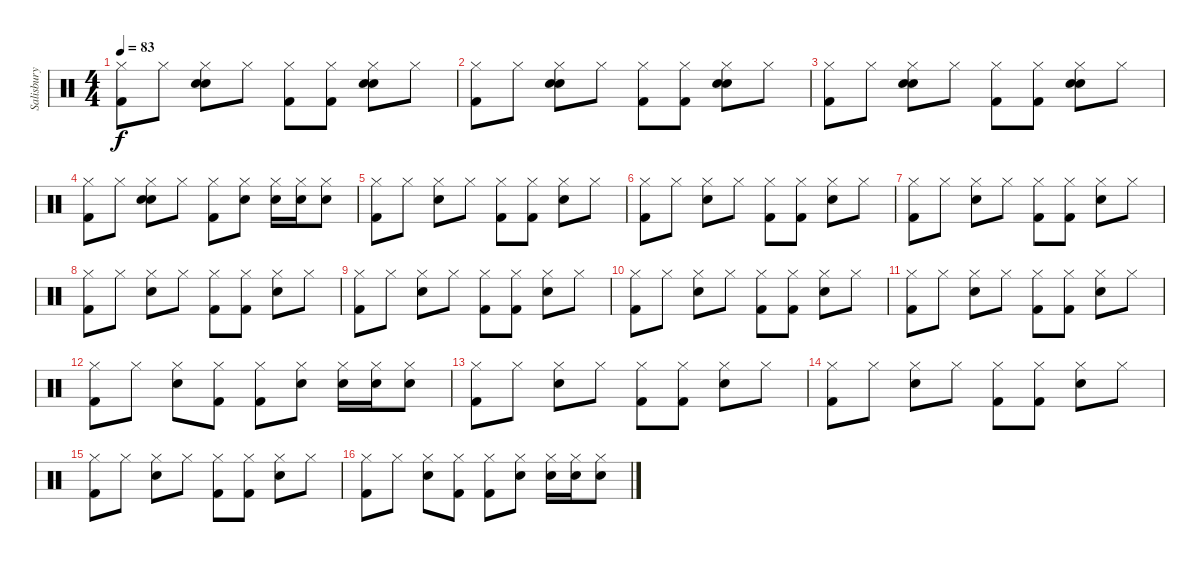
\track ("Salisbury" "Salisbury") {instrument percussion}
\staff {score}
\articulation defaults
\ts (4 4)
\tempo 83
\clef neutral
\ks c
("Hi-Hat (closed)" "Kick (hit) 2").8{dy f} "Hi-Hat (closed)".8 ("Hi-Hat (closed)" "Electric Snare (hit)" "Hand Clap (hit)").8 "Hi-Hat (closed)".8 ("Hi-Hat (closed)" "Kick (hit) 2").8 ("Hi-Hat (closed)" "Kick (hit) 2").8 ("Hi-Hat (closed)" "Electric Snare (hit)" "Hand Clap (hit)").8 "Hi-Hat (closed)".8 |
("Hi-Hat (closed)" "Kick (hit) 2").8 "Hi-Hat (closed)".8 ("Hi-Hat (closed)" "Electric Snare (hit)" "Hand Clap (hit)").8 "Hi-Hat (closed)".8 ("Hi-Hat (closed)" "Kick (hit) 2").8 ("Hi-Hat (closed)" "Kick (hit) 2").8 ("Hi-Hat (closed)" "Electric Snare (hit)" "Hand Clap (hit)").8 "Hi-Hat (closed)".8 |
("Hi-Hat (closed)" "Kick (hit) 2").8 "Hi-Hat (closed)".8 ("Hi-Hat (closed)" "Electric Snare (hit)" "Hand Clap (hit)").8 "Hi-Hat (closed)".8 ("Hi-Hat (closed)" "Kick (hit) 2").8 ("Hi-Hat (closed)" "Kick (hit) 2").8 ("Hi-Hat (closed)" "Electric Snare (hit)" "Hand Clap (hit)").8 "Hi-Hat (closed)".8 |
("Hi-Hat (closed)" "Kick (hit) 2").8 "Hi-Hat (closed)".8 ("Hi-Hat (closed)" "Electric Snare (hit)" "Hand Clap (hit)").8 "Hi-Hat (closed)".8 ("Hi-Hat (closed)" "Kick (hit) 2").8 ("Hi-Hat (closed)" "Electric Snare (hit)").8 ("Hi-Hat (closed)" "Electric Snare (hit)").16 ("Hi-Hat (closed)" "Electric Snare (hit)").16 ("Hi-Hat (closed)" "Electric Snare (hit)").8 |
("Hi-Hat (closed)" "Kick (hit) 2").8 "Hi-Hat (closed)".8 ("Hi-Hat (closed)" "Electric Snare (hit)").8 "Hi-Hat (closed)".8 ("Hi-Hat (closed)" "Kick (hit) 2").8 ("Hi-Hat (closed)" "Kick (hit) 2").8 ("Hi-Hat (closed)" "Electric Snare (hit)").8 "Hi-Hat (closed)".8 |
("Hi-Hat (closed)" "Kick (hit) 2").8 "Hi-Hat (closed)".8 ("Hi-Hat (closed)" "Electric Snare (hit)").8 "Hi-Hat (closed)".8 ("Hi-Hat (closed)" "Kick (hit) 2").8 ("Hi-Hat (closed)" "Kick (hit) 2").8 ("Hi-Hat (closed)" "Electric Snare (hit)").8 "Hi-Hat (closed)".8 |
("Hi-Hat (closed)" "Kick (hit) 2").8 "Hi-Hat (closed)".8 ("Hi-Hat (closed)" "Electric Snare (hit)").8 "Hi-Hat (closed)".8 ("Hi-Hat (closed)" "Kick (hit) 2").8 ("Hi-Hat (closed)" "Kick (hit) 2").8 ("Hi-Hat (closed)" "Electric Snare (hit)").8 "Hi-Hat (closed)".8 |
("Hi-Hat (closed)" "Kick (hit) 2").8 "Hi-Hat (closed)".8 ("Hi-Hat (closed)" "Electric Snare (hit)").8 "Hi-Hat (closed)".8 ("Hi-Hat (closed)" "Kick (hit) 2").8 ("Hi-Hat (closed)" "Kick (hit) 2").8 ("Hi-Hat (closed)" "Electric Snare (hit)").8 "Hi-Hat (closed)".8 |
("Hi-Hat (closed)" "Kick (hit) 2").8 "Hi-Hat (closed)".8 ("Hi-Hat (closed)" "Electric Snare (hit)").8 "Hi-Hat (closed)".8 ("Hi-Hat (closed)" "Kick (hit) 2").8 ("Hi-Hat (closed)" "Kick (hit) 2").8 ("Hi-Hat (closed)" "Electric Snare (hit)").8 "Hi-Hat (closed)".8 |
("Hi-Hat (closed)" "Kick (hit) 2").8 "Hi-Hat (closed)".8 ("Hi-Hat (closed)" "Electric Snare (hit)").8 "Hi-Hat (closed)".8 ("Hi-Hat (closed)" "Kick (hit) 2").8 ("Hi-Hat (closed)" "Kick (hit) 2").8 ("Hi-Hat (closed)" "Electric Snare (hit)").8 "Hi-Hat (closed)".8 |
("Hi-Hat (closed)" "Kick (hit) 2").8 "Hi-Hat (closed)".8 ("Hi-Hat (closed)" "Electric Snare (hit)").8 "Hi-Hat (closed)".8 ("Hi-Hat (closed)" "Kick (hit) 2").8 ("Hi-Hat (closed)" "Kick (hit) 2").8 ("Hi-Hat (closed)" "Electric Snare (hit)").8 "Hi-Hat (closed)".8 |
("Hi-Hat (closed)" "Kick (hit) 2").8 "Hi-Hat (closed)".8 ("Hi-Hat (closed)" "Electric Snare (hit)").8 ("Hi-Hat (closed)" "Kick (hit) 2").8 ("Hi-Hat (closed)" "Kick (hit) 2").8 ("Hi-Hat (closed)" "Electric Snare (hit)").8 ("Hi-Hat (closed)" "Electric Snare (hit)").16 ("Hi-Hat (closed)" "Electric Snare (hit)").16 ("Hi-Hat (closed)" "Electric Snare (hit)").8 |
("Hi-Hat (closed)" "Kick (hit) 2").8 "Hi-Hat (closed)".8 ("Hi-Hat (closed)" "Electric Snare (hit)").8 "Hi-Hat (closed)".8 ("Hi-Hat (closed)" "Kick (hit) 2").8 ("Hi-Hat (closed)" "Kick (hit) 2").8 ("Hi-Hat (closed)" "Electric Snare (hit)").8 "Hi-Hat (closed)".8 |
("Hi-Hat (closed)" "Kick (hit) 2").8 "Hi-Hat (closed)".8 ("Hi-Hat (closed)" "Electric Snare (hit)").8 "Hi-Hat (closed)".8 ("Hi-Hat (closed)" "Kick (hit) 2").8 ("Hi-Hat (closed)" "Kick (hit) 2").8 ("Hi-Hat (closed)" "Electric Snare (hit)").8 "Hi-Hat (closed)".8 |
("Hi-Hat (closed)" "Kick (hit) 2").8 "Hi-Hat (closed)".8 ("Hi-Hat (closed)" "Electric Snare (hit)").8 "Hi-Hat (closed)".8 ("Hi-Hat (closed)" "Kick (hit) 2").8 ("Hi-Hat (closed)" "Kick (hit) 2").8 ("Hi-Hat (closed)" "Electric Snare (hit)").8 "Hi-Hat (closed)".8 |
("Hi-Hat (closed)" "Kick (hit) 2").8 "Hi-Hat (closed)".8 ("Hi-Hat (closed)" "Electric Snare (hit)").8 ("Hi-Hat (closed)" "Kick (hit) 2").8 ("Hi-Hat (closed)" "Kick (hit) 2").8 ("Hi-Hat (closed)" "Electric Snare (hit)").8 ("Hi-Hat (closed)" "Electric Snare (hit)").16 ("Hi-Hat (closed)" "Electric Snare (hit)").16 ("Hi-Hat (closed)" "Electric Snare (hit)").8
